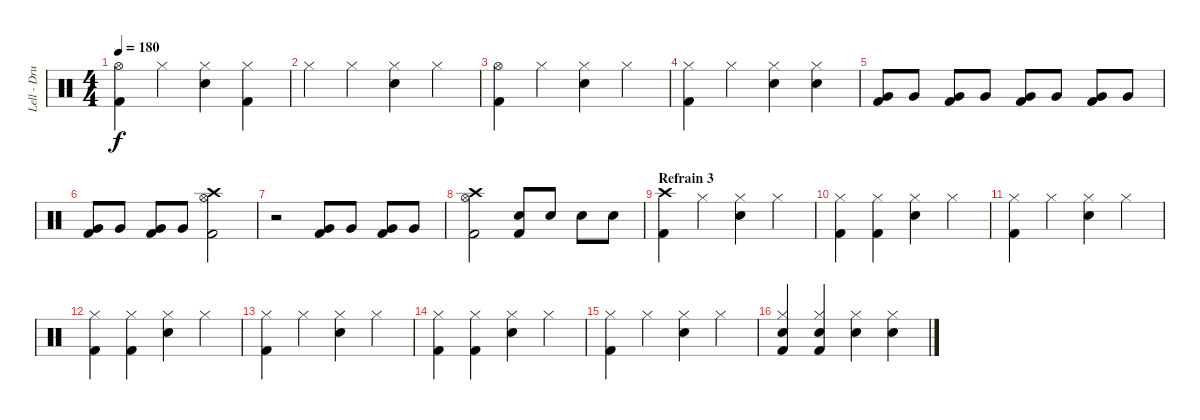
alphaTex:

\track ("Lell - Drums" "Lell - Dru") {instrument percussion}
\staff {score}
\articulation defaults
\ts (4 4)
\tempo 180
\clef neutral
\ks c
("Hi-Hat (open)" "Kick (hit) 2").4{dy f} "Hi-Hat (closed)".4 ("Hi-Hat (closed)" "Snare (hit) 2").4 ("Hi-Hat (closed)" "Kick (hit) 2").4 |
"Hi-Hat (closed)".4 "Hi-Hat (closed)".4 ("Hi-Hat (closed)" "Snare (hit) 2").4 "Hi-Hat (closed)".4 |
("Hi-Hat (open)" "Kick (hit) 2").4 "Hi-Hat (closed)".4 ("Hi-Hat (closed)" "Snare (hit) 2").4 "Hi-Hat (closed)".4 |
("Hi-Hat (closed)" "Kick (hit) 2").4 "Hi-Hat (closed)".4 ("Hi-Hat (closed)" "Snare (hit) 2").4 ("Hi-Hat (closed)" "Snare (hit) 2").4 |
("Very Low Tom (hit)" "Kick (hit) 2").8 "Very Low Tom (hit)".8 ("Very Low Tom (hit)" "Kick (hit) 2").8 "Very Low Tom (hit)".8 ("Very Low Tom (hit)" "Kick (hit) 2").8 "Very Low Tom (hit)".8 ("Very Low Tom (hit)" "Kick (hit) 2").8 "Very Low Tom (hit)".8 |
("Very Low Tom (hit)" "Kick (hit) 2").8 "Very Low Tom (hit)".8 ("Very Low Tom (hit)" "Kick (hit) 2").8 "Very Low Tom (hit)".8 ("Crash high (hit)" "Hi-Hat (open)" "Kick (hit) 2").2 |
r.2 ("Very Low Tom (hit)" "Kick (hit) 2").8 "Very Low Tom (hit)".8 ("Very Low Tom (hit)" "Kick (hit) 2").8 "Very Low Tom (hit)".8 |
("Crash high (hit)" "Hi-Hat (open)" "Kick (hit) 2").2 ("Snare (hit) 2" "Kick (hit) 2").8 "Snare (hit) 2".8 "Snare (hit) 2".8 "Snare (hit) 2".8 |
\section ("" "Refrain 3")
("Crash high (hit)" "Kick (hit) 2").4 "Hi-Hat (closed)".4 ("Hi-Hat (closed)" "Snare (hit) 2").4 "Hi-Hat (closed)".4 |
("Hi-Hat (closed)" "Kick (hit) 2").4 ("Hi-Hat (closed)" "Kick (hit) 2").4 ("Hi-Hat (closed)" "Snare (hit) 2").4 "Hi-Hat (closed)".4 |
("Hi-Hat (closed)" "Kick (hit) 2").4 "Hi-Hat (closed)".4 ("Hi-Hat (closed)" "Snare (hit) 2").4 "Hi-Hat (closed)".4 |
("Hi-Hat (closed)" "Kick (hit) 2").4 ("Hi-Hat (closed)" "Kick (hit) 2").4 ("Hi-Hat (closed)" "Snare (hit) 2").4 "Hi-Hat (closed)".4 |
("Hi-Hat (closed)" "Kick (hit) 2").4 "Hi-Hat (closed)".4 ("Hi-Hat (closed)" "Snare (hit) 2").4 "Hi-Hat (closed)".4 |
("Hi-Hat (closed)" "Kick (hit) 2").4 ("Hi-Hat (closed)" "Kick (hit) 2").4 ("Hi-Hat (closed)" "Snare (hit) 2").4 "Hi-Hat (closed)".4 |
("Hi-Hat (closed)" "Kick (hit) 2").4 "Hi-Hat (closed)".4 ("Hi-Hat (closed)" "Snare (hit) 2").4 "Hi-Hat (closed)".4 |
("Hi-Hat (closed)" "Snare (hit) 2" "Kick (hit) 2").4 ("Hi-Hat (closed)" "Snare (hit) 2" "Kick (hit) 2").4 ("Hi-Hat (closed)" "Snare (hit) 2").4 ("Hi-Hat (closed)" "Snare (hit) 2").4
